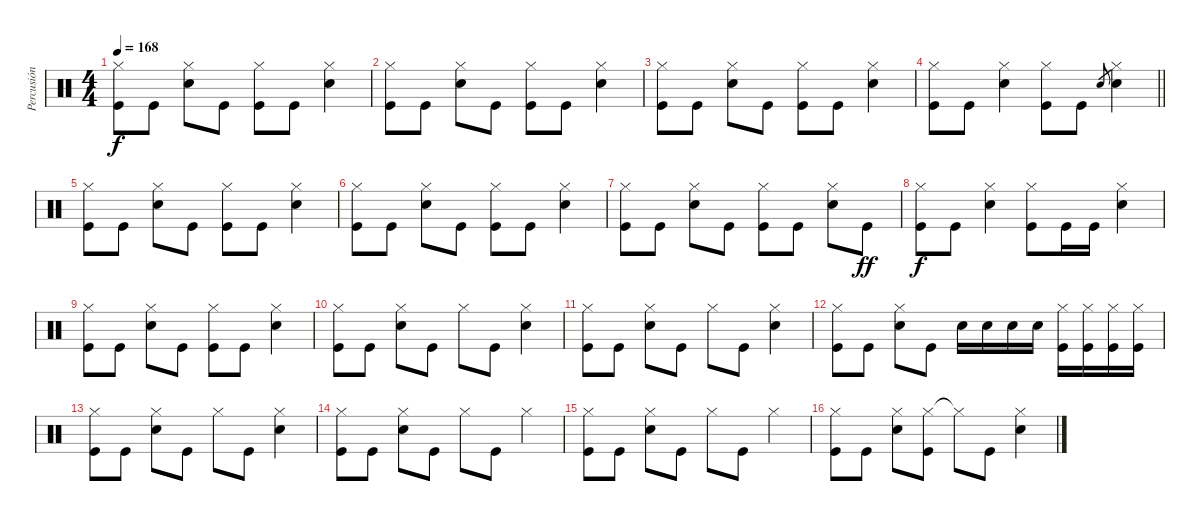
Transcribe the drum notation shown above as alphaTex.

\track ("Percusión" "Percusión") {instrument percussion}
\staff {score}
\articulation defaults
\ts (4 4)
\tempo 168
\clef neutral
\ks c
("Hi-Hat (closed)" "Kick (hit)").8{dy f} "Kick (hit)".8 ("Hi-Hat (closed)" "Snare (hit) 2").8 "Kick (hit)".8 ("Hi-Hat (closed)" "Kick (hit)").8 "Kick (hit)".8 ("Hi-Hat (closed)" "Snare (hit) 2").4 |
("Hi-Hat (closed)" "Kick (hit)").8 "Kick (hit)".8 ("Hi-Hat (closed)" "Snare (hit) 2").8 "Kick (hit)".8 ("Hi-Hat (closed)" "Kick (hit)").8 "Kick (hit)".8 ("Hi-Hat (closed)" "Snare (hit) 2").4 |
("Hi-Hat (closed)" "Kick (hit)").8 "Kick (hit)".8 ("Hi-Hat (closed)" "Snare (hit) 2").8 "Kick (hit)".8 ("Hi-Hat (closed)" "Kick (hit)").8 "Kick (hit)".8 ("Hi-Hat (closed)" "Snare (hit) 2").4 |
\barLineRight lightlight
("Hi-Hat (closed)" "Kick (hit)").8 "Kick (hit)".8 ("Hi-Hat (closed)" "Snare (hit) 2").4 ("Hi-Hat (closed)" "Kick (hit)").8 "Kick (hit)".8 "Snare (hit) 2".8{gr} ("Hi-Hat (closed)" "Snare (hit) 2").4 |
("Hi-Hat (closed)" "Kick (hit)").8 "Kick (hit)".8 ("Hi-Hat (closed)" "Snare (hit) 2").8 "Kick (hit)".8 ("Hi-Hat (closed)" "Kick (hit)").8 "Kick (hit)".8 ("Hi-Hat (closed)" "Snare (hit) 2").4 |
("Hi-Hat (closed)" "Kick (hit)").8 "Kick (hit)".8 ("Hi-Hat (closed)" "Snare (hit) 2").8 "Kick (hit)".8 ("Hi-Hat (closed)" "Kick (hit)").8 "Kick (hit)".8 ("Hi-Hat (closed)" "Snare (hit) 2").4 |
("Hi-Hat (closed)" "Kick (hit)").8 "Kick (hit)".8 ("Hi-Hat (closed)" "Snare (hit) 2").8 "Kick (hit)".8 ("Hi-Hat (closed)" "Kick (hit)").8 "Kick (hit)".8 ("Hi-Hat (closed)" "Snare (hit) 2").8 "Kick (hit)".8{dy ff} |
("Hi-Hat (closed)" "Kick (hit)").8{dy f} "Kick (hit)".8 ("Hi-Hat (closed)" "Snare (hit) 2").4 ("Hi-Hat (closed)" "Kick (hit)").8 "Kick (hit)".16 "Kick (hit)".16 ("Hi-Hat (closed)" "Snare (hit) 2").4 |
("Hi-Hat (closed)" "Kick (hit)").8 "Kick (hit)".8 ("Hi-Hat (closed)" "Snare (hit) 2").8 "Kick (hit)".8 ("Hi-Hat (closed)" "Kick (hit)").8 "Kick (hit)".8 ("Hi-Hat (closed)" "Snare (hit) 2").4 |
("Hi-Hat (closed)" "Kick (hit)").8 "Kick (hit)".8 ("Hi-Hat (closed)" "Snare (hit) 2").8 "Kick (hit)".8 "Hi-Hat (closed)".8 "Kick (hit)".8 ("Hi-Hat (closed)" "Snare (hit) 2").4 |
("Hi-Hat (closed)" "Kick (hit)").8 "Kick (hit)".8 ("Hi-Hat (closed)" "Snare (hit) 2").8 "Kick (hit)".8 "Hi-Hat (closed)".8 "Kick (hit)".8 ("Hi-Hat (closed)" "Snare (hit) 2").4 |
("Hi-Hat (closed)" "Kick (hit)").8 "Kick (hit)".8 ("Hi-Hat (closed)" "Snare (hit) 2").8 "Kick (hit)".8 "Snare (hit) 2".16 "Snare (hit) 2".16 "Snare (hit) 2".16 "Snare (hit) 2".16 ("Hi-Hat (closed)" "Kick (hit)").16 ("Hi-Hat (closed)" "Kick (hit)").16 ("Hi-Hat (closed)" "Kick (hit)").16 ("Hi-Hat (closed)" "Kick (hit)").16 |
("Hi-Hat (closed)" "Kick (hit)").8 "Kick (hit)".8 ("Hi-Hat (closed)" "Snare (hit) 2").8 "Kick (hit)".8 "Hi-Hat (closed)".8 "Kick (hit)".8 ("Hi-Hat (closed)" "Snare (hit) 2").4 |
("Hi-Hat (closed)" "Kick (hit)").8 "Kick (hit)".8 ("Hi-Hat (closed)" "Snare (hit) 2").8 "Kick (hit)".8 "Hi-Hat (closed)".8 "Kick (hit)".8 "Hi-Hat (closed)".4 |
("Hi-Hat (closed)" "Kick (hit)").8 "Kick (hit)".8 ("Hi-Hat (closed)" "Snare (hit) 2").8 "Kick (hit)".8 "Hi-Hat (closed)".8 "Kick (hit)".8 "Hi-Hat (closed)".4 |
("Hi-Hat (closed)" "Kick (hit)").8 "Kick (hit)".8 ("Hi-Hat (closed)" "Snare (hit) 2").8 ("Hi-Hat (closed)" "Kick (hit)").8 "Hi-Hat (closed)"{t}.8 "Kick (hit)".8 ("Hi-Hat (closed)" "Snare (hit) 2").4
